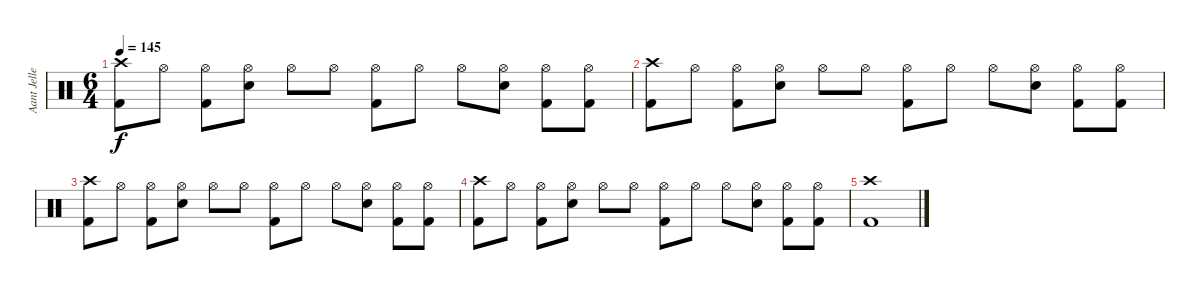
\track ("Aant Jelle" "Aant Jelle") {instrument percussion}
\staff {score}
\articulation defaults
\ts (6 4)
\tempo 145
\clef neutral
\ks c
("Crash high (hit)" "Kick (hit) 2").8{dy f} "Hi-Hat (open)".8 ("Hi-Hat (open)" "Kick (hit) 2").8 ("Hi-Hat (open)" "Snare (hit) 2").8 "Hi-Hat (open)".8 "Hi-Hat (open)".8 ("Hi-Hat (open)" "Kick (hit) 2").8 "Hi-Hat (open)".8 "Hi-Hat (open)".8 ("Hi-Hat (open)" "Snare (hit) 2").8 ("Hi-Hat (open)" "Kick (hit) 2").8 ("Hi-Hat (open)" "Kick (hit) 2").8 |
("Crash high (hit)" "Kick (hit) 2").8 "Hi-Hat (open)".8 ("Hi-Hat (open)" "Kick (hit) 2").8 ("Hi-Hat (open)" "Snare (hit) 2").8 "Hi-Hat (open)".8 "Hi-Hat (open)".8 ("Hi-Hat (open)" "Kick (hit) 2").8 "Hi-Hat (open)".8 "Hi-Hat (open)".8 ("Hi-Hat (open)" "Snare (hit) 2").8 ("Hi-Hat (open)" "Kick (hit) 2").8 ("Hi-Hat (open)" "Kick (hit) 2").8 |
("Crash high (hit)" "Kick (hit) 2").8 "Hi-Hat (open)".8 ("Hi-Hat (open)" "Kick (hit) 2").8 ("Hi-Hat (open)" "Snare (hit) 2").8 "Hi-Hat (open)".8 "Hi-Hat (open)".8 ("Hi-Hat (open)" "Kick (hit) 2").8 "Hi-Hat (open)".8 "Hi-Hat (open)".8 ("Hi-Hat (open)" "Snare (hit) 2").8 ("Hi-Hat (open)" "Kick (hit) 2").8 ("Hi-Hat (open)" "Kick (hit) 2").8 |
("Crash high (hit)" "Kick (hit) 2").8 "Hi-Hat (open)".8 ("Hi-Hat (open)" "Kick (hit) 2").8 ("Hi-Hat (open)" "Snare (hit) 2").8 "Hi-Hat (open)".8 "Hi-Hat (open)".8 ("Hi-Hat (open)" "Kick (hit) 2").8 "Hi-Hat (open)".8 "Hi-Hat (open)".8 ("Hi-Hat (open)" "Snare (hit) 2").8 ("Hi-Hat (open)" "Kick (hit) 2").8 ("Hi-Hat (open)" "Kick (hit) 2").8 |
("Crash high (hit)" "Kick (hit) 2").1
